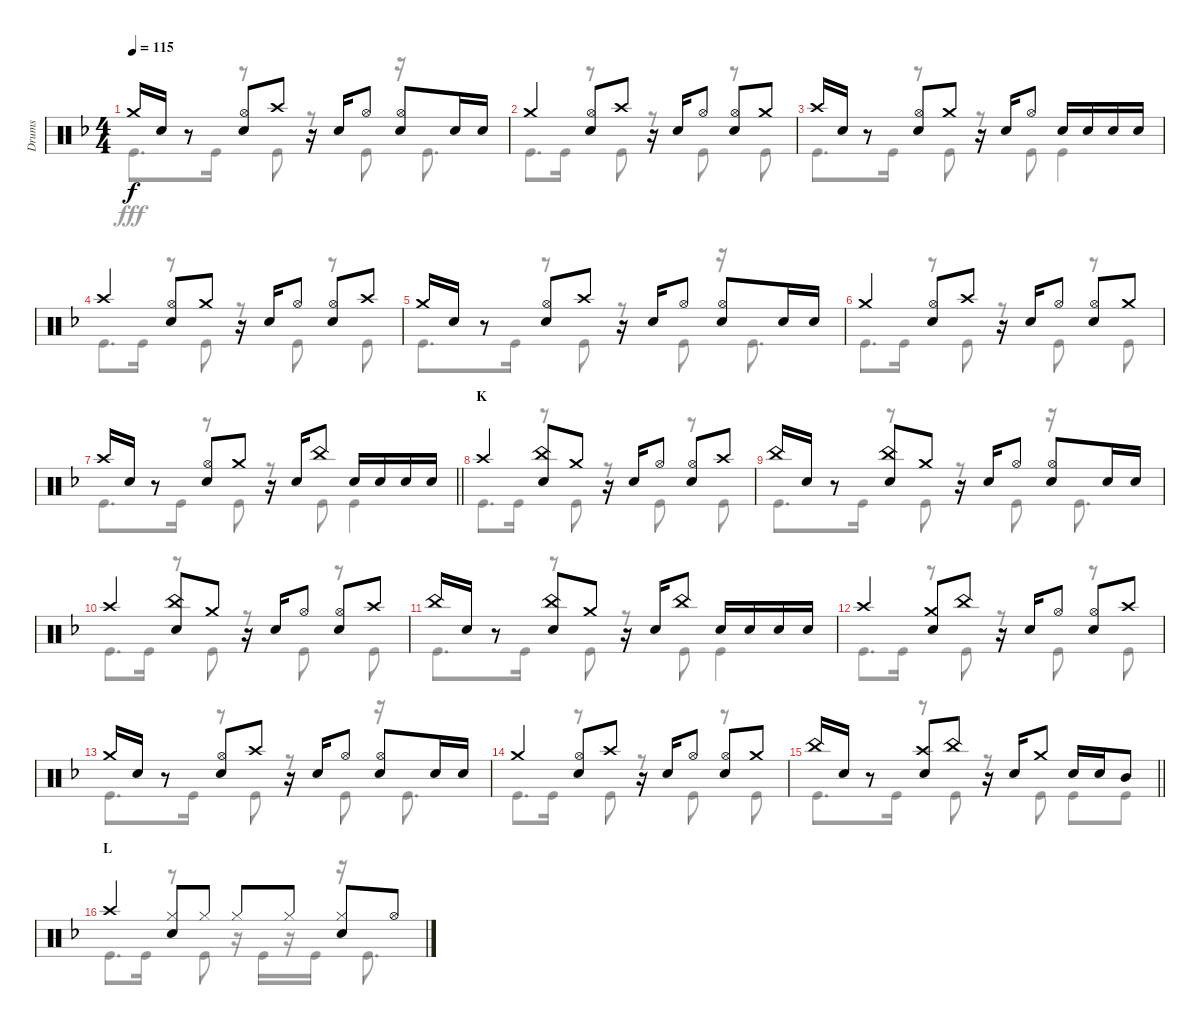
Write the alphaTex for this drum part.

\track ("Drums" "Drums") {instrument percussion}
\staff {score}
\articulation defaults
\voice
\ts (4 4)
\tempo 115
\clef neutral
\ks f "Crash medium (hit)".16{dy f} "Snare (hit) 2".16
r.8 ("Hi-Hat (open)" "Snare (hit) 2").8 "Crash high (hit)".8 r.16 "Snare (hit) 2".16 "Hi-Hat (open)".8 ("Hi-Hat (open)" "Snare (hit) 2").8 "Snare (hit) 2".16 "Snare (hit) 2".16 |
"Crash medium (hit)".4 ("Hi-Hat (open)" "Snare (hit) 2").8 "Crash high (hit)".8 r.16 "Snare (hit) 2".16 "Hi-Hat (open)".8 ("Hi-Hat (open)" "Snare (hit) 2").8 "Crash medium (hit)".8 |
"Crash high (hit)".16 "Snare (hit) 2".16 r.8 ("Hi-Hat (open)" "Snare (hit) 2").8 "Crash medium (hit)".8 r.16 "Snare (hit) 2".16 "Hi-Hat (open)".8 "Snare (hit) 2".16 "Snare (hit) 2".16 "Snare (hit) 2".16 "Snare (hit) 2".16 |
"Crash high (hit)".4 ("Hi-Hat (open)" "Snare (hit) 2").8 "Crash medium (hit)".8 r.16 "Snare (hit) 2".16 "Hi-Hat (open)".8 ("Hi-Hat (open)" "Snare (hit) 2").8 "Crash high (hit)".8 |
"Crash medium (hit)".16 "Snare (hit) 2".16 r.8 ("Hi-Hat (open)" "Snare (hit) 2").8 "Crash high (hit)".8 r.16 "Snare (hit) 2".16 "Hi-Hat (open)".8 ("Hi-Hat (open)" "Snare (hit) 2").8 "Snare (hit) 2".16 "Snare (hit) 2".16 |
"Crash medium (hit)".4 ("Hi-Hat (open)" "Snare (hit) 2").8 "Crash high (hit)".8 r.16 "Snare (hit) 2".16 "Hi-Hat (open)".8 ("Hi-Hat (open)" "Snare (hit) 2").8 "Crash medium (hit)".8 |
\barLineRight lightlight "Crash high (hit)".16 "Snare (hit) 2".16
r.8 ("Hi-Hat (open)" "Snare (hit) 2").8 "Crash medium (hit)".8 r.16 "Snare (hit) 2".16 "China (hit)".8 "Snare (hit) 2".16 "Snare (hit) 2".16 "Snare (hit) 2".16 "Snare (hit) 2".16 |
\section ("" "K")
"Crash high (hit)".4 ("China (hit)" "Snare (hit) 2").8 "Crash medium (hit)".8 r.16 "Snare (hit) 2".16 "Hi-Hat (open)".8 ("Hi-Hat (open)" "Snare (hit) 2").8 "Crash high (hit)".8 |
"China (hit)".16 "Snare (hit) 2".16 r.8 ("China (hit)" "Snare (hit) 2").8 "Crash medium (hit)".8 r.16 "Snare (hit) 2".16 "Hi-Hat (open)".8 ("Hi-Hat (open)" "Snare (hit) 2").8 "Snare (hit) 2".16 "Snare (hit) 2".16 |
"Crash high (hit)".4 ("China (hit)" "Snare (hit) 2").8 "Crash medium (hit)".8 r.16 "Snare (hit) 2".16 "Hi-Hat (open)".8 ("Hi-Hat (open)" "Snare (hit) 2").8 "Crash high (hit)".8 |
"China (hit)".16 "Snare (hit) 2".16 r.8 ("China (hit)" "Snare (hit) 2").8 "Crash medium (hit)".8 r.16 "Snare (hit) 2".16 "China (hit)".8 "Snare (hit) 2".16 "Snare (hit) 2".16 "Snare (hit) 2".16 "Snare (hit) 2".16 |
"Crash high (hit)".4 ("Crash medium (hit)" "Snare (hit) 2").8 "China (hit)".8 r.16 "Snare (hit) 2".16 "Hi-Hat (open)".8 ("Hi-Hat (open)" "Snare (hit) 2").8 "Crash high (hit)".8 |
"Crash medium (hit)".16 "Snare (hit) 2".16 r.8 ("Hi-Hat (open)" "Snare (hit) 2").8 "Crash high (hit)".8 r.16 "Snare (hit) 2".16 "Hi-Hat (open)".8 ("Hi-Hat (open)" "Snare (hit) 2").8 "Snare (hit) 2".16 "Snare (hit) 2".16 |
"Crash medium (hit)".4 ("Hi-Hat (open)" "Snare (hit) 2").8 "Crash high (hit)".8 r.16 "Snare (hit) 2".16 "Hi-Hat (open)".8 ("Hi-Hat (open)" "Snare (hit) 2").8 "Crash medium (hit)".8 |
\barLineRight lightlight "China (hit)".16 "Snare (hit) 2".16
r.8 ("Crash high (hit)" "Snare (hit) 2").8 "China (hit)".8 r.16 "Snare (hit) 2".16 "Crash medium (hit)".8 "Snare (hit) 2".16 "Snare (hit) 2".16 "Mid Tom (hit)".8 |
\section ("" "L")
"Crash high (hit)".4 ("Hi-Hat (closed)" "Snare (hit) 2").8 "Hi-Hat (closed)".8 "Hi-Hat (closed)".8 "Hi-Hat (closed)".8 ("Hi-Hat (closed)" "Snare (hit) 2").8 "Hi-Hat (open)".8
\voice
\clef neutral
\ottava regular
\simile none
\ks f "Kick (hit)".8{d dy fff} "Kick (hit)".16
r.8 "Kick (hit)".8 r.8 "Kick (hit)".8 r.16 "Kick (hit)".8{d} |
"Kick (hit)".8{d} "Kick (hit)".16 r.8 "Kick (hit)".8 r.8 "Kick (hit)".8 r.8 "Kick (hit)".8 |
"Kick (hit)".8{d} "Kick (hit)".16 r.8 "Kick (hit)".8 r.8 "Kick (hit)".8 "Kick (hit)".4 |
"Kick (hit)".8{d} "Kick (hit)".16 r.8 "Kick (hit)".8 r.8 "Kick (hit)".8 r.8 "Kick (hit)".8 |
"Kick (hit)".8{d} "Kick (hit)".16 r.8 "Kick (hit)".8 r.8 "Kick (hit)".8 r.16 "Kick (hit)".8{d} |
"Kick (hit)".8{d} "Kick (hit)".16 r.8 "Kick (hit)".8 r.8 "Kick (hit)".8 r.8 "Kick (hit)".8 |
\barLineRight lightlight "Kick (hit)".8{d} "Kick (hit)".16
r.8 "Kick (hit)".8 r.8 "Kick (hit)".8 "Kick (hit)".4 |
"Kick (hit)".8{d} "Kick (hit)".16 r.8 "Kick (hit)".8 r.8 "Kick (hit)".8 r.8 "Kick (hit)".8 |
"Kick (hit)".8{d} "Kick (hit)".16 r.8 "Kick (hit)".8 r.8 "Kick (hit)".8 r.16 "Kick (hit)".8{d} |
"Kick (hit)".8{d} "Kick (hit)".16 r.8 "Kick (hit)".8 r.8 "Kick (hit)".8 r.8 "Kick (hit)".8 |
"Kick (hit)".8{d} "Kick (hit)".16 r.8 "Kick (hit)".8 r.8 "Kick (hit)".8 "Kick (hit)".4 |
"Kick (hit)".8{d} "Kick (hit)".16 r.8 "Kick (hit)".8 r.8 "Kick (hit)".8 r.8 "Kick (hit)".8 |
"Kick (hit)".8{d} "Kick (hit)".16 r.8 "Kick (hit)".8 r.8 "Kick (hit)".8 r.16 "Kick (hit)".8{d} |
"Kick (hit)".8{d} "Kick (hit)".16 r.8 "Kick (hit)".8 r.8 "Kick (hit)".8 r.8 "Kick (hit)".8 |
\barLineRight lightlight "Kick (hit)".8{d} "Kick (hit)".16
r.8 "Kick (hit)".8 r.8 "Kick (hit)".8 "Kick (hit)".8 "Kick (hit)".8 |
"Kick (hit)".8{d} "Kick (hit)".16 r.8 "Kick (hit)".8 r.16 "Kick (hit)".16 r.16 "Kick (hit)".16 r.16 "Kick (hit)".8{d}
